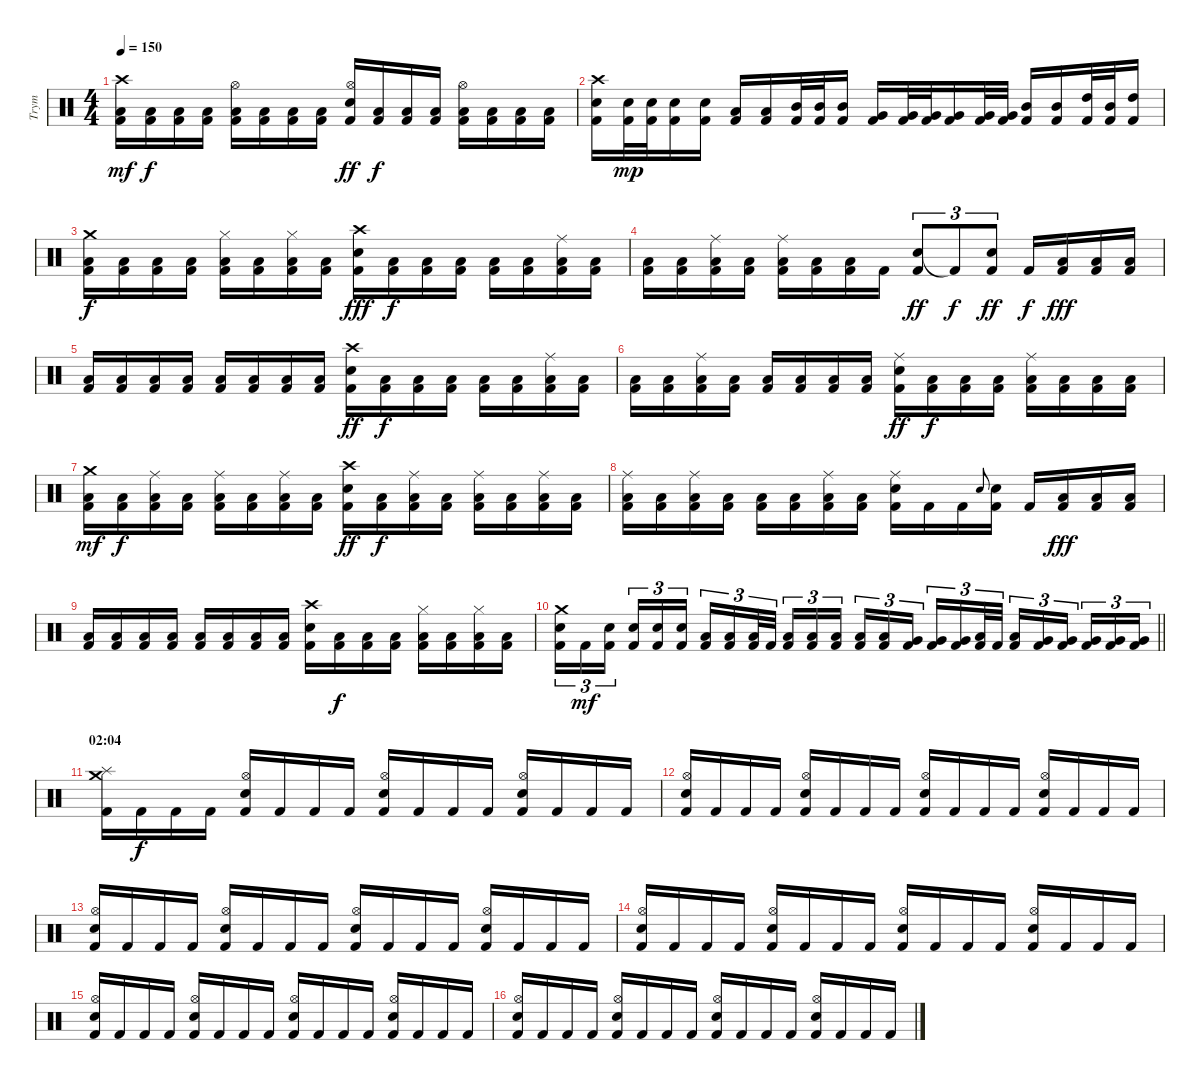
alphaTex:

\track ("Trym" "Trym") {instrument percussion}
\staff {score}
\articulation defaults
\ts (4 4)
\tempo 150
\clef neutral
\ks c
("Crash high (hit)" "Low Floor Tom (hit)" "Kick (hit) 2").16{dy mf} ("Low Floor Tom (hit)" "Kick (hit) 2").16{dy f} ("Low Floor Tom (hit)" "Kick (hit) 2").16 ("Low Floor Tom (hit)" "Kick (hit) 2").16 ("Hi-Hat (open)" "Low Floor Tom (hit)" "Kick (hit) 2").16 ("Low Floor Tom (hit)" "Kick (hit) 2").16 ("Low Floor Tom (hit)" "Kick (hit) 2").16 ("Low Floor Tom (hit)" "Kick (hit) 2").16 ("Snare (hit) 2" "Hi-Hat (open)" "Kick (hit) 2").16{dy ff} ("Low Floor Tom (hit)" "Kick (hit) 2").16{dy f} ("Low Floor Tom (hit)" "Kick (hit) 2").16 ("Low Floor Tom (hit)" "Kick (hit) 2").16 ("Hi-Hat (open)" "Low Floor Tom (hit)" "Kick (hit) 2").16 ("Low Floor Tom (hit)" "Kick (hit) 2").16 ("Low Floor Tom (hit)" "Kick (hit) 2").16 ("Low Floor Tom (hit)" "Kick (hit) 2").16 |
("Crash high (hit)" "Snare (hit) 2" "Kick (hit) 2").16 ("Snare (hit) 2" "Kick (hit) 2").32{dy mp} ("Snare (hit) 2" "Kick (hit) 2").32 ("Snare (hit) 2" "Kick (hit) 2").16 ("Snare (hit) 2" "Kick (hit) 2").16 ("Low Tom (hit)" "Kick (hit) 2").16 ("Low Tom (hit)" "Kick (hit) 2").16 ("Mid Tom (hit)" "Kick (hit) 2").32 ("Mid Tom (hit)" "Kick (hit) 2").32 ("Mid Tom (hit)" "Kick (hit) 2").16 ("Very Low Tom (hit)" "Kick (hit) 2").16 ("Very Low Tom (hit)" "Kick (hit) 2").32 ("Very Low Tom (hit)" "Kick (hit) 2").32 ("Very Low Tom (hit)" "Kick (hit) 2").16 ("Very Low Tom (hit)" "Kick (hit) 2").32 ("Very Low Tom (hit)" "Kick (hit) 2").32 ("Mid Tom (hit)" "Kick (hit) 2").16 ("Mid Tom (hit)" "Kick (hit) 2").16 ("High Tom (hit)" "Kick (hit) 2").32 ("Mid Tom (hit)" "Kick (hit) 2").32 ("High Tom (hit)" "Kick (hit) 2").16 |
("Crash medium (hit)" "Low Floor Tom (hit)" "Kick (hit) 2").16{dy f} ("Low Floor Tom (hit)" "Kick (hit) 2").16 ("Low Floor Tom (hit)" "Kick (hit) 2").16 ("Low Floor Tom (hit)" "Kick (hit) 2").16 ("Hi-Hat (closed)" "Low Floor Tom (hit)" "Kick (hit) 2").16 ("Low Floor Tom (hit)" "Kick (hit) 2").16 ("Hi-Hat (closed)" "Low Floor Tom (hit)" "Kick (hit) 2").16 ("Low Floor Tom (hit)" "Kick (hit) 2").16 ("Snare (hit) 2" "Crash high (hit)" "Kick (hit) 2").16{dy fff} ("Low Floor Tom (hit)" "Kick (hit) 2").16{dy f} ("Low Floor Tom (hit)" "Kick (hit) 2").16 ("Low Floor Tom (hit)" "Kick (hit) 2").16 ("Low Floor Tom (hit)" "Kick (hit) 2").16 ("Low Floor Tom (hit)" "Kick (hit) 2").16 ("Ride (middle)" "Low Floor Tom (hit)" "Kick (hit) 2").16 ("Low Floor Tom (hit)" "Kick (hit) 2").16 |
("Low Floor Tom (hit)" "Kick (hit) 2").16 ("Low Floor Tom (hit)" "Kick (hit) 2").16 ("Ride (middle)" "Low Floor Tom (hit)" "Kick (hit) 2").16 ("Low Floor Tom (hit)" "Kick (hit) 2").16 ("Ride (middle)" "Low Floor Tom (hit)" "Kick (hit) 2").16 ("Low Floor Tom (hit)" "Kick (hit) 2").16 ("Low Floor Tom (hit)" "Kick (hit) 2").16 "Kick (hit) 2".16 ("Snare (hit) 2" "Kick (hit) 2").8{tu (3 2) dy ff} "Kick (hit) 2"{t}.8{tu (3 2) dy f} ("Snare (hit) 2" "Kick (hit) 2").8{tu (3 2) dy ff} "Kick (hit) 2".16{dy f} ("Low Floor Tom (hit)" "Kick (hit) 2").16{dy fff} ("Low Floor Tom (hit)" "Kick (hit) 2").16 ("Low Floor Tom (hit)" "Kick (hit) 2").16 |
("Low Floor Tom (hit)" "Kick (hit) 2").16 ("Low Floor Tom (hit)" "Kick (hit) 2").16 ("Low Floor Tom (hit)" "Kick (hit) 2").16 ("Low Floor Tom (hit)" "Kick (hit) 2").16 ("Low Floor Tom (hit)" "Kick (hit) 2").16 ("Low Floor Tom (hit)" "Kick (hit) 2").16 ("Low Floor Tom (hit)" "Kick (hit) 2").16 ("Low Floor Tom (hit)" "Kick (hit) 2").16 ("Snare (hit) 2" "Crash high (hit)" "Kick (hit) 2").16{dy ff} ("Low Floor Tom (hit)" "Kick (hit) 2").16{dy f} ("Low Floor Tom (hit)" "Kick (hit) 2").16 ("Low Floor Tom (hit)" "Kick (hit) 2").16 ("Low Floor Tom (hit)" "Kick (hit) 2").16 ("Low Floor Tom (hit)" "Kick (hit) 2").16 ("Ride (middle)" "Low Floor Tom (hit)" "Kick (hit) 2").16 ("Low Floor Tom (hit)" "Kick (hit) 2").16 |
("Low Floor Tom (hit)" "Kick (hit) 2").16 ("Low Floor Tom (hit)" "Kick (hit) 2").16 ("Ride (middle)" "Low Floor Tom (hit)" "Kick (hit) 2").16 ("Low Floor Tom (hit)" "Kick (hit) 2").16 ("Low Floor Tom (hit)" "Kick (hit) 2").16 ("Low Floor Tom (hit)" "Kick (hit) 2").16 ("Low Floor Tom (hit)" "Kick (hit) 2").16 ("Low Floor Tom (hit)" "Kick (hit) 2").16 ("Snare (hit) 2" "Ride (middle)" "Kick (hit) 2").16{dy ff} ("Low Floor Tom (hit)" "Kick (hit) 2").16{dy f} ("Low Floor Tom (hit)" "Kick (hit) 2").16 ("Low Floor Tom (hit)" "Kick (hit) 2").16 ("Ride (middle)" "Low Floor Tom (hit)" "Kick (hit) 2").16 ("Low Floor Tom (hit)" "Kick (hit) 2").16 ("Low Floor Tom (hit)" "Kick (hit) 2").16 ("Low Floor Tom (hit)" "Kick (hit) 2").16 |
("Crash medium (hit)" "Low Floor Tom (hit)" "Kick (hit) 2").16{dy mf} ("Low Floor Tom (hit)" "Kick (hit) 2").16{dy f} ("Ride (middle)" "Low Floor Tom (hit)" "Kick (hit) 2").16 ("Low Floor Tom (hit)" "Kick (hit) 2").16 ("Ride (middle)" "Low Floor Tom (hit)" "Kick (hit) 2").16 ("Low Floor Tom (hit)" "Kick (hit) 2").16 ("Ride (middle)" "Low Floor Tom (hit)" "Kick (hit) 2").16 ("Low Floor Tom (hit)" "Kick (hit) 2").16 ("Snare (hit) 2" "Crash high (hit)" "Kick (hit) 2").16{dy ff} ("Low Floor Tom (hit)" "Kick (hit) 2").16{dy f} ("Ride (middle)" "Low Floor Tom (hit)" "Kick (hit) 2").16 ("Low Floor Tom (hit)" "Kick (hit) 2").16 ("Ride (middle)" "Low Floor Tom (hit)" "Kick (hit) 2").16 ("Low Floor Tom (hit)" "Kick (hit) 2").16 ("Ride (middle)" "Low Floor Tom (hit)" "Kick (hit) 2").16 ("Low Floor Tom (hit)" "Kick (hit) 2").16 |
("Ride (middle)" "Low Floor Tom (hit)" "Kick (hit) 2").16 ("Low Floor Tom (hit)" "Kick (hit) 2").16 ("Ride (middle)" "Low Floor Tom (hit)" "Kick (hit) 2").16 ("Low Floor Tom (hit)" "Kick (hit) 2").16 ("Low Floor Tom (hit)" "Kick (hit) 2").16 ("Low Floor Tom (hit)" "Kick (hit) 2").16 ("Ride (middle)" "Low Floor Tom (hit)" "Kick (hit) 2").16 ("Low Floor Tom (hit)" "Kick (hit) 2").16 ("Snare (hit) 2" "Ride (middle)" "Kick (hit) 2").16 "Kick (hit) 2".16 "Kick (hit) 2".16 "Snare (hit) 2".8{gr onbeat} ("Snare (hit) 2" "Kick (hit) 2").16 "Kick (hit) 2".16 ("Low Floor Tom (hit)" "Kick (hit) 2").16{dy fff} ("Low Floor Tom (hit)" "Kick (hit) 2").16 ("Low Floor Tom (hit)" "Kick (hit) 2").16 |
("Low Floor Tom (hit)" "Kick (hit) 2").16 ("Low Floor Tom (hit)" "Kick (hit) 2").16 ("Low Floor Tom (hit)" "Kick (hit) 2").16 ("Low Floor Tom (hit)" "Kick (hit) 2").16 ("Low Floor Tom (hit)" "Kick (hit) 2").16 ("Low Floor Tom (hit)" "Kick (hit) 2").16 ("Low Floor Tom (hit)" "Kick (hit) 2").16 ("Low Floor Tom (hit)" "Kick (hit) 2").16 ("Snare (hit) 2" "Crash high (hit)" "Kick (hit) 2").16 ("Low Floor Tom (hit)" "Kick (hit) 2").16{dy f} ("Low Floor Tom (hit)" "Kick (hit) 2").16 ("Low Floor Tom (hit)" "Kick (hit) 2").16 ("Hi-Hat (closed)" "Low Floor Tom (hit)" "Kick (hit) 2").16 ("Low Floor Tom (hit)" "Kick (hit) 2").16 ("Hi-Hat (closed)" "Low Floor Tom (hit)" "Kick (hit) 2").16 ("Low Floor Tom (hit)" "Kick (hit) 2").16 |
\barLineRight lightlight
("Snare (hit) 2" "Crash medium (hit)" "Kick (hit) 2").16{tu (3 2)} "Kick (hit) 2".16{tu (3 2) dy mf} ("Snare (hit) 2" "Kick (hit) 2").16{tu (3 2) beam splitsecondary} ("Snare (hit) 2" "Kick (hit) 2").16{tu (3 2)} ("Snare (hit) 2" "Kick (hit) 2").16{tu (3 2)} ("Snare (hit) 2" "Kick (hit) 2").16{tu (3 2)} ("Low Tom (hit)" "Kick (hit) 2").16{tu (3 2)} ("Low Tom (hit)" "Kick (hit) 2").16{tu (3 2)} ("Low Tom (hit)" "Kick (hit) 2").32{tu (3 2)} "Kick (hit) 2".32{tu (3 2) beam splitsecondary} ("Low Floor Tom (hit)" "Kick (hit) 2").16{tu (3 2)} ("Low Tom (hit)" "Kick (hit) 2").16{tu (3 2)} ("Low Tom (hit)" "Kick (hit) 2").16{tu (3 2)} ("Low Tom (hit)" "Kick (hit) 2").16{tu (3 2)} ("Low Tom (hit)" "Kick (hit) 2").16{tu (3 2)} ("Very Low Tom (hit)" "Kick (hit) 2").16{tu (3 2) beam splitsecondary} ("Very Low Tom (hit)" "Kick (hit) 2").16{tu (3 2)} ("Very Low Tom (hit)" "Kick (hit) 2").16{tu (3 2)} ("Low Tom (hit)" "Kick (hit) 2").32{tu (3 2)} "Kick (hit) 2".32{tu (3 2)} ("Low Floor Tom (hit)" "Kick (hit) 2").16{tu (3 2)} ("Very Low Tom (hit)" "Kick (hit) 2").16{tu (3 2)} ("Very Low Tom (hit)" "Kick (hit) 2").16{tu (3 2) beam splitsecondary} ("Very Low Tom (hit)" "Kick (hit) 2").16{tu (3 2)} ("Very Low Tom (hit)" "Kick (hit) 2").16{tu (3 2)} ("Very Low Tom (hit)" "Kick (hit) 2").16{tu (3 2)} |
\section ("" "02:04")
("Crash medium (hit)" "Splash (hit)" "Kick (hit) 2").16 "Kick (hit) 2".16{dy f} "Kick (hit) 2".16 "Kick (hit) 2".16 ("Snare (hit) 2" "Hi-Hat (open)" "Kick (hit) 2").16 "Kick (hit) 2".16 "Kick (hit) 2".16 "Kick (hit) 2".16 ("Snare (hit) 2" "Hi-Hat (open)" "Kick (hit) 2").16 "Kick (hit) 2".16 "Kick (hit) 2".16 "Kick (hit) 2".16 ("Snare (hit) 2" "Hi-Hat (open)" "Kick (hit) 2").16 "Kick (hit) 2".16 "Kick (hit) 2".16 "Kick (hit) 2".16 |
("Snare (hit) 2" "Hi-Hat (open)" "Kick (hit) 2").16 "Kick (hit) 2".16 "Kick (hit) 2".16 "Kick (hit) 2".16 ("Snare (hit) 2" "Hi-Hat (open)" "Kick (hit) 2").16 "Kick (hit) 2".16 "Kick (hit) 2".16 "Kick (hit) 2".16 ("Snare (hit) 2" "Hi-Hat (open)" "Kick (hit) 2").16 "Kick (hit) 2".16 "Kick (hit) 2".16 "Kick (hit) 2".16 ("Snare (hit) 2" "Hi-Hat (open)" "Kick (hit) 2").16 "Kick (hit) 2".16 "Kick (hit) 2".16 "Kick (hit) 2".16 |
("Snare (hit) 2" "Hi-Hat (open)" "Kick (hit) 2").16 "Kick (hit) 2".16 "Kick (hit) 2".16 "Kick (hit) 2".16 ("Snare (hit) 2" "Hi-Hat (open)" "Kick (hit) 2").16 "Kick (hit) 2".16 "Kick (hit) 2".16 "Kick (hit) 2".16 ("Snare (hit) 2" "Hi-Hat (open)" "Kick (hit) 2").16 "Kick (hit) 2".16 "Kick (hit) 2".16 "Kick (hit) 2".16 ("Snare (hit) 2" "Hi-Hat (open)" "Kick (hit) 2").16 "Kick (hit) 2".16 "Kick (hit) 2".16 "Kick (hit) 2".16 |
("Snare (hit) 2" "Hi-Hat (open)" "Kick (hit) 2").16 "Kick (hit) 2".16 "Kick (hit) 2".16 "Kick (hit) 2".16 ("Snare (hit) 2" "Hi-Hat (open)" "Kick (hit) 2").16 "Kick (hit) 2".16 "Kick (hit) 2".16 "Kick (hit) 2".16 ("Snare (hit) 2" "Hi-Hat (open)" "Kick (hit) 2").16 "Kick (hit) 2".16 "Kick (hit) 2".16 "Kick (hit) 2".16 ("Snare (hit) 2" "Hi-Hat (open)" "Kick (hit) 2").16 "Kick (hit) 2".16 "Kick (hit) 2".16 "Kick (hit) 2".16 |
("Snare (hit) 2" "Hi-Hat (open)" "Kick (hit) 2").16 "Kick (hit) 2".16 "Kick (hit) 2".16 "Kick (hit) 2".16 ("Snare (hit) 2" "Hi-Hat (open)" "Kick (hit) 2").16 "Kick (hit) 2".16 "Kick (hit) 2".16 "Kick (hit) 2".16 ("Snare (hit) 2" "Hi-Hat (open)" "Kick (hit) 2").16 "Kick (hit) 2".16 "Kick (hit) 2".16 "Kick (hit) 2".16 ("Snare (hit) 2" "Hi-Hat (open)" "Kick (hit) 2").16 "Kick (hit) 2".16 "Kick (hit) 2".16 "Kick (hit) 2".16 |
("Snare (hit) 2" "Hi-Hat (open)" "Kick (hit) 2").16 "Kick (hit) 2".16 "Kick (hit) 2".16 "Kick (hit) 2".16 ("Snare (hit) 2" "Hi-Hat (open)" "Kick (hit) 2").16 "Kick (hit) 2".16 "Kick (hit) 2".16 "Kick (hit) 2".16 ("Snare (hit) 2" "Hi-Hat (open)" "Kick (hit) 2").16 "Kick (hit) 2".16 "Kick (hit) 2".16 "Kick (hit) 2".16 ("Snare (hit) 2" "Hi-Hat (open)" "Kick (hit) 2").16 "Kick (hit) 2".16 "Kick (hit) 2".16 "Kick (hit) 2".16
